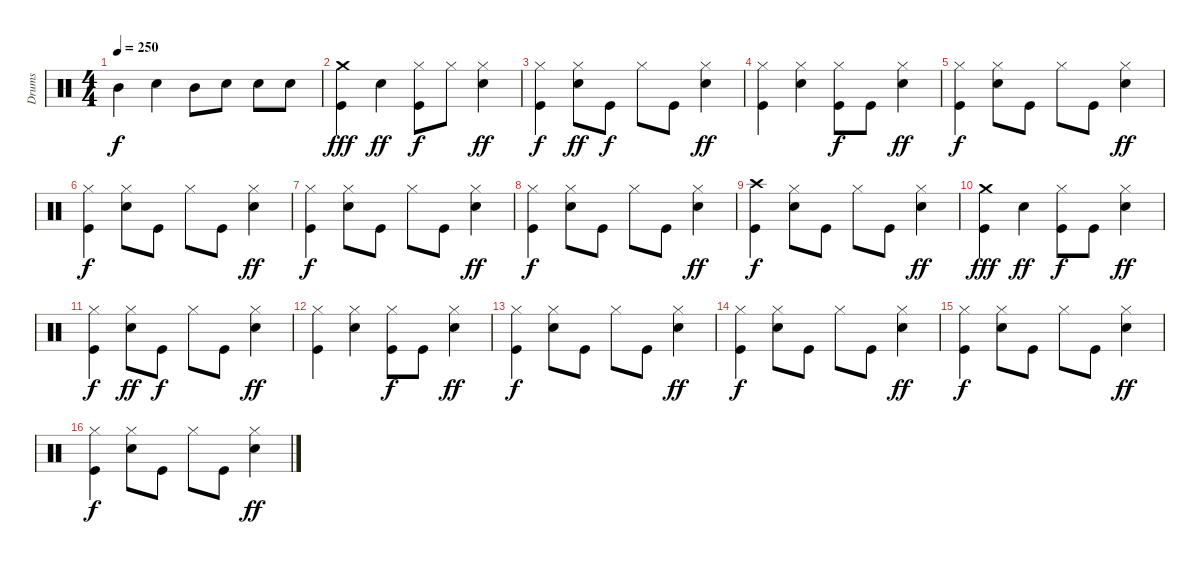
\track ("Drums" "Drums") {instrument percussion}
\staff {score}
\articulation defaults
\ts (4 4)
\tempo 250
\clef neutral
\ks c "Mid Tom (hit)".4{dy f} "Snare (hit) 2".4 "Mid Tom (hit)".8 "Snare (hit) 2".8 "Snare (hit) 2".8 "Snare (hit) 2".8
|
("Crash medium (hit)" "Kick (hit)").4{dy fff} "Snare (hit) 2".4{dy ff} ("Hi-Hat (closed)" "Kick (hit)").8{dy f} "Hi-Hat (closed)".8 ("Hi-Hat (closed)" "Snare (hit) 2").4{dy ff} |
("Hi-Hat (closed)" "Kick (hit)").4{dy f} ("Hi-Hat (closed)" "Snare (hit) 2").8{dy ff} "Kick (hit)".8{dy f} "Hi-Hat (closed)".8 "Kick (hit)".8 ("Hi-Hat (closed)" "Snare (hit) 2").4{dy ff} |
("Hi-Hat (closed)" "Kick (hit)").4 ("Hi-Hat (closed)" "Snare (hit) 2").4 ("Hi-Hat (closed)" "Kick (hit)").8{dy f} "Kick (hit)".8 ("Hi-Hat (closed)" "Snare (hit) 2").4{dy ff} |
("Hi-Hat (closed)" "Kick (hit)").4{dy f} ("Hi-Hat (closed)" "Snare (hit) 2").8 "Kick (hit)".8 "Hi-Hat (closed)".8 "Kick (hit)".8 ("Hi-Hat (closed)" "Snare (hit) 2").4{dy ff} |
("Hi-Hat (closed)" "Kick (hit)").4{dy f} ("Hi-Hat (closed)" "Snare (hit) 2").8 "Kick (hit)".8 "Hi-Hat (closed)".8 "Kick (hit)".8 ("Hi-Hat (closed)" "Snare (hit) 2").4{dy ff} |
("Hi-Hat (closed)" "Kick (hit)").4{dy f} ("Hi-Hat (closed)" "Snare (hit) 2").8 "Kick (hit)".8 "Hi-Hat (closed)".8 "Kick (hit)".8 ("Hi-Hat (closed)" "Snare (hit) 2").4{dy ff} |
("Hi-Hat (closed)" "Kick (hit)").4{dy f} ("Hi-Hat (closed)" "Snare (hit) 2").8 "Kick (hit)".8 "Hi-Hat (closed)".8 "Kick (hit)".8 ("Hi-Hat (closed)" "Snare (hit) 2").4{dy ff} |
("Crash high (hit)" "Kick (hit)").4{dy f} ("Hi-Hat (closed)" "Snare (hit) 2").8 "Kick (hit)".8 "Hi-Hat (closed)".8 "Kick (hit)".8 ("Hi-Hat (closed)" "Snare (hit) 2").4{dy ff} |
("Crash medium (hit)" "Kick (hit)").4{dy fff} "Snare (hit) 2".4{dy ff} ("Hi-Hat (closed)" "Kick (hit)").8{dy f} "Kick (hit)".8 ("Hi-Hat (closed)" "Snare (hit) 2").4{dy ff} |
("Hi-Hat (closed)" "Kick (hit)").4{dy f} ("Hi-Hat (closed)" "Snare (hit) 2").8{dy ff} "Kick (hit)".8{dy f} "Hi-Hat (closed)".8 "Kick (hit)".8 ("Hi-Hat (closed)" "Snare (hit) 2").4{dy ff} |
("Hi-Hat (closed)" "Kick (hit)").4 ("Hi-Hat (closed)" "Snare (hit) 2").4 ("Hi-Hat (closed)" "Kick (hit)").8{dy f} "Kick (hit)".8 ("Hi-Hat (closed)" "Snare (hit) 2").4{dy ff} |
("Hi-Hat (closed)" "Kick (hit)").4{dy f} ("Hi-Hat (closed)" "Snare (hit) 2").8 "Kick (hit)".8 "Hi-Hat (closed)".8 "Kick (hit)".8 ("Hi-Hat (closed)" "Snare (hit) 2").4{dy ff} |
("Hi-Hat (closed)" "Kick (hit)").4{dy f} ("Hi-Hat (closed)" "Snare (hit) 2").8 "Kick (hit)".8 "Hi-Hat (closed)".8 "Kick (hit)".8 ("Hi-Hat (closed)" "Snare (hit) 2").4{dy ff} |
("Hi-Hat (closed)" "Kick (hit)").4{dy f} ("Hi-Hat (closed)" "Snare (hit) 2").8 "Kick (hit)".8 "Hi-Hat (closed)".8 "Kick (hit)".8 ("Hi-Hat (closed)" "Snare (hit) 2").4{dy ff} |
("Hi-Hat (closed)" "Kick (hit)").4{dy f} ("Hi-Hat (closed)" "Snare (hit) 2").8 "Kick (hit)".8 "Hi-Hat (closed)".8 "Kick (hit)".8 ("Hi-Hat (closed)" "Snare (hit) 2").4{dy ff}
